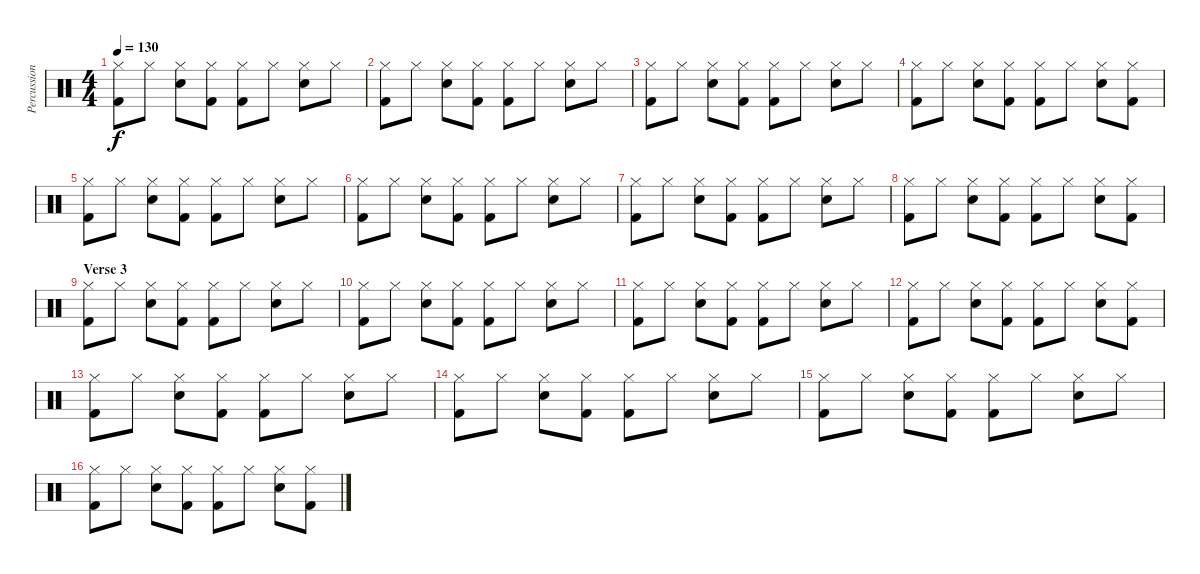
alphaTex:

\track ("Percussion" "Percussion") {instrument percussion}
\staff {score}
\articulation defaults
\ts (4 4)
\tempo 130
\clef neutral
\ks c
("Hi-Hat (closed)" "Kick (hit) 2").8{dy f} "Hi-Hat (closed)".8 ("Hi-Hat (closed)" "Snare (hit) 2").8 ("Hi-Hat (closed)" "Kick (hit) 2").8 ("Hi-Hat (closed)" "Kick (hit) 2").8 "Hi-Hat (closed)".8 ("Hi-Hat (closed)" "Snare (hit) 2").8 "Hi-Hat (closed)".8 |
("Hi-Hat (closed)" "Kick (hit) 2").8 "Hi-Hat (closed)".8 ("Hi-Hat (closed)" "Snare (hit) 2").8 ("Hi-Hat (closed)" "Kick (hit) 2").8 ("Hi-Hat (closed)" "Kick (hit) 2").8 "Hi-Hat (closed)".8 ("Hi-Hat (closed)" "Snare (hit) 2").8 "Hi-Hat (closed)".8 |
("Hi-Hat (closed)" "Kick (hit) 2").8 "Hi-Hat (closed)".8 ("Hi-Hat (closed)" "Snare (hit) 2").8 ("Hi-Hat (closed)" "Kick (hit) 2").8 ("Hi-Hat (closed)" "Kick (hit) 2").8 "Hi-Hat (closed)".8 ("Hi-Hat (closed)" "Snare (hit) 2").8 "Hi-Hat (closed)".8 |
("Hi-Hat (closed)" "Kick (hit) 2").8 "Hi-Hat (closed)".8 ("Hi-Hat (closed)" "Snare (hit) 2").8 ("Hi-Hat (closed)" "Kick (hit) 2").8 ("Hi-Hat (closed)" "Kick (hit) 2").8 "Hi-Hat (closed)".8 ("Hi-Hat (closed)" "Snare (hit) 2").8 ("Hi-Hat (closed)" "Kick (hit) 2").8 |
("Hi-Hat (closed)" "Kick (hit) 2").8 "Hi-Hat (closed)".8 ("Hi-Hat (closed)" "Snare (hit) 2").8 ("Hi-Hat (closed)" "Kick (hit) 2").8 ("Hi-Hat (closed)" "Kick (hit) 2").8 "Hi-Hat (closed)".8 ("Hi-Hat (closed)" "Snare (hit) 2").8 "Hi-Hat (closed)".8 |
("Hi-Hat (closed)" "Kick (hit) 2").8 "Hi-Hat (closed)".8 ("Hi-Hat (closed)" "Snare (hit) 2").8 ("Hi-Hat (closed)" "Kick (hit) 2").8 ("Hi-Hat (closed)" "Kick (hit) 2").8 "Hi-Hat (closed)".8 ("Hi-Hat (closed)" "Snare (hit) 2").8 "Hi-Hat (closed)".8 |
("Hi-Hat (closed)" "Kick (hit) 2").8 "Hi-Hat (closed)".8 ("Hi-Hat (closed)" "Snare (hit) 2").8 ("Hi-Hat (closed)" "Kick (hit) 2").8 ("Hi-Hat (closed)" "Kick (hit) 2").8 "Hi-Hat (closed)".8 ("Hi-Hat (closed)" "Snare (hit) 2").8 "Hi-Hat (closed)".8 |
("Hi-Hat (closed)" "Kick (hit) 2").8 "Hi-Hat (closed)".8 ("Hi-Hat (closed)" "Snare (hit) 2").8 ("Hi-Hat (closed)" "Kick (hit) 2").8 ("Hi-Hat (closed)" "Kick (hit) 2").8 "Hi-Hat (closed)".8 ("Hi-Hat (closed)" "Snare (hit) 2").8 ("Hi-Hat (closed)" "Kick (hit) 2").8 |
\section ("" "Verse 3")
("Hi-Hat (closed)" "Kick (hit) 2").8 "Hi-Hat (closed)".8 ("Hi-Hat (closed)" "Snare (hit) 2").8 ("Hi-Hat (closed)" "Kick (hit) 2").8 ("Hi-Hat (closed)" "Kick (hit) 2").8 "Hi-Hat (closed)".8 ("Hi-Hat (closed)" "Snare (hit) 2").8 "Hi-Hat (closed)".8 |
("Hi-Hat (closed)" "Kick (hit) 2").8 "Hi-Hat (closed)".8 ("Hi-Hat (closed)" "Snare (hit) 2").8 ("Hi-Hat (closed)" "Kick (hit) 2").8 ("Hi-Hat (closed)" "Kick (hit) 2").8 "Hi-Hat (closed)".8 ("Hi-Hat (closed)" "Snare (hit) 2").8 "Hi-Hat (closed)".8 |
("Hi-Hat (closed)" "Kick (hit) 2").8 "Hi-Hat (closed)".8 ("Hi-Hat (closed)" "Snare (hit) 2").8 ("Hi-Hat (closed)" "Kick (hit) 2").8 ("Hi-Hat (closed)" "Kick (hit) 2").8 "Hi-Hat (closed)".8 ("Hi-Hat (closed)" "Snare (hit) 2").8 "Hi-Hat (closed)".8 |
("Hi-Hat (closed)" "Kick (hit) 2").8 "Hi-Hat (closed)".8 ("Hi-Hat (closed)" "Snare (hit) 2").8 ("Hi-Hat (closed)" "Kick (hit) 2").8 ("Hi-Hat (closed)" "Kick (hit) 2").8 "Hi-Hat (closed)".8 ("Hi-Hat (closed)" "Snare (hit) 2").8 ("Hi-Hat (closed)" "Kick (hit) 2").8 |
("Hi-Hat (closed)" "Kick (hit) 2").8 "Hi-Hat (closed)".8 ("Hi-Hat (closed)" "Snare (hit) 2").8 ("Hi-Hat (closed)" "Kick (hit) 2").8 ("Hi-Hat (closed)" "Kick (hit) 2").8 "Hi-Hat (closed)".8 ("Hi-Hat (closed)" "Snare (hit) 2").8 "Hi-Hat (closed)".8 |
("Hi-Hat (closed)" "Kick (hit) 2").8 "Hi-Hat (closed)".8 ("Hi-Hat (closed)" "Snare (hit) 2").8 ("Hi-Hat (closed)" "Kick (hit) 2").8 ("Hi-Hat (closed)" "Kick (hit) 2").8 "Hi-Hat (closed)".8 ("Hi-Hat (closed)" "Snare (hit) 2").8 "Hi-Hat (closed)".8 |
("Hi-Hat (closed)" "Kick (hit) 2").8 "Hi-Hat (closed)".8 ("Hi-Hat (closed)" "Snare (hit) 2").8 ("Hi-Hat (closed)" "Kick (hit) 2").8 ("Hi-Hat (closed)" "Kick (hit) 2").8 "Hi-Hat (closed)".8 ("Hi-Hat (closed)" "Snare (hit) 2").8 "Hi-Hat (closed)".8 |
("Hi-Hat (closed)" "Kick (hit) 2").8 "Hi-Hat (closed)".8 ("Hi-Hat (closed)" "Snare (hit) 2").8 ("Hi-Hat (closed)" "Kick (hit) 2").8 ("Hi-Hat (closed)" "Kick (hit) 2").8 "Hi-Hat (closed)".8 ("Hi-Hat (closed)" "Snare (hit) 2").8 ("Hi-Hat (closed)" "Kick (hit) 2").8
